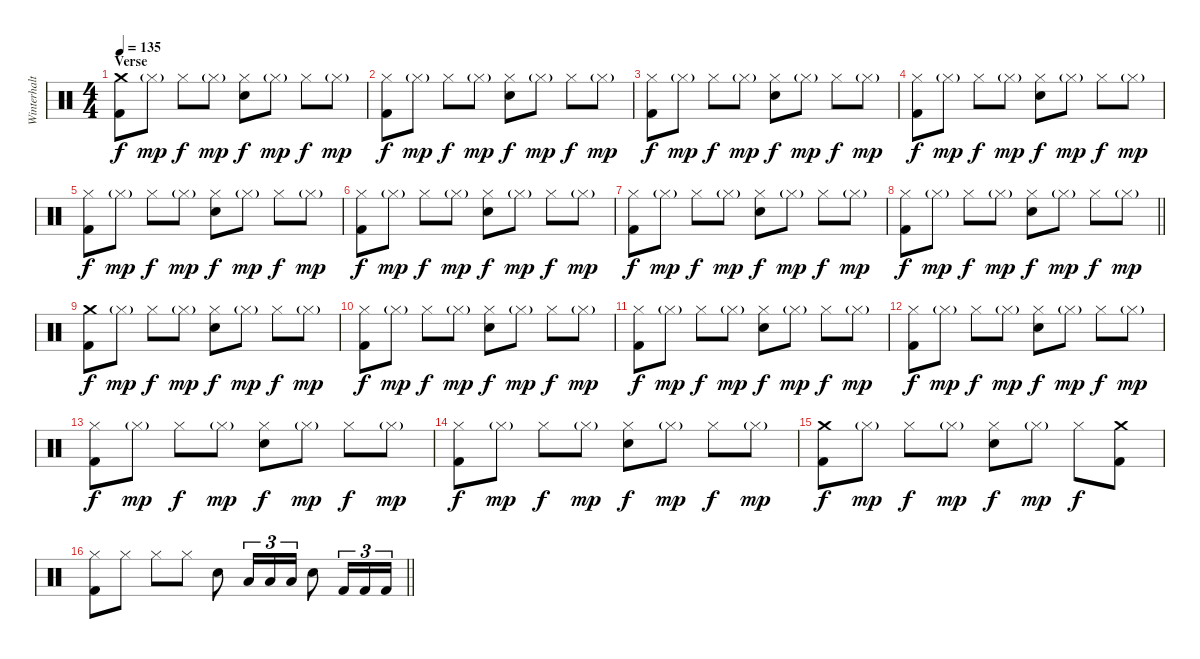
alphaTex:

\track ("Winterhalter" "Winterhalt") {instrument percussion}
\staff {score}
\articulation defaults
\ts (4 4)
\section ("" "Verse")
\tempo 135
\clef neutral
\ks c
("Crash medium (hit)" "Kick (hit) 2").8{dy f} "Hi-Hat (closed)"{g}.8{dy mp} "Hi-Hat (closed)".8{dy f} "Hi-Hat (closed)"{g}.8{dy mp} ("Hi-Hat (closed)" "Snare (hit) 2").8{dy f} "Hi-Hat (closed)"{g}.8{dy mp} "Hi-Hat (closed)".8{dy f} "Hi-Hat (closed)"{g}.8{dy mp} |
("Hi-Hat (closed)" "Kick (hit) 2").8{dy f} "Hi-Hat (closed)"{g}.8{dy mp} "Hi-Hat (closed)".8{dy f} "Hi-Hat (closed)"{g}.8{dy mp} ("Hi-Hat (closed)" "Snare (hit) 2").8{dy f} "Hi-Hat (closed)"{g}.8{dy mp} "Hi-Hat (closed)".8{dy f} "Hi-Hat (closed)"{g}.8{dy mp} |
("Hi-Hat (closed)" "Kick (hit) 2").8{dy f} "Hi-Hat (closed)"{g}.8{dy mp} "Hi-Hat (closed)".8{dy f} "Hi-Hat (closed)"{g}.8{dy mp} ("Hi-Hat (closed)" "Snare (hit) 2").8{dy f} "Hi-Hat (closed)"{g}.8{dy mp} "Hi-Hat (closed)".8{dy f} "Hi-Hat (closed)"{g}.8{dy mp} |
("Hi-Hat (closed)" "Kick (hit) 2").8{dy f} "Hi-Hat (closed)"{g}.8{dy mp} "Hi-Hat (closed)".8{dy f} "Hi-Hat (closed)"{g}.8{dy mp} ("Hi-Hat (closed)" "Snare (hit) 2").8{dy f} "Hi-Hat (closed)"{g}.8{dy mp} "Hi-Hat (closed)".8{dy f} "Hi-Hat (closed)"{g}.8{dy mp} |
("Hi-Hat (closed)" "Kick (hit) 2").8{dy f} "Hi-Hat (closed)"{g}.8{dy mp} "Hi-Hat (closed)".8{dy f} "Hi-Hat (closed)"{g}.8{dy mp} ("Hi-Hat (closed)" "Snare (hit) 2").8{dy f} "Hi-Hat (closed)"{g}.8{dy mp} "Hi-Hat (closed)".8{dy f} "Hi-Hat (closed)"{g}.8{dy mp} |
("Hi-Hat (closed)" "Kick (hit) 2").8{dy f} "Hi-Hat (closed)"{g}.8{dy mp} "Hi-Hat (closed)".8{dy f} "Hi-Hat (closed)"{g}.8{dy mp} ("Hi-Hat (closed)" "Snare (hit) 2").8{dy f} "Hi-Hat (closed)"{g}.8{dy mp} "Hi-Hat (closed)".8{dy f} "Hi-Hat (closed)"{g}.8{dy mp} |
("Hi-Hat (closed)" "Kick (hit) 2").8{dy f} "Hi-Hat (closed)"{g}.8{dy mp} "Hi-Hat (closed)".8{dy f} "Hi-Hat (closed)"{g}.8{dy mp} ("Hi-Hat (closed)" "Snare (hit) 2").8{dy f} "Hi-Hat (closed)"{g}.8{dy mp} "Hi-Hat (closed)".8{dy f} "Hi-Hat (closed)"{g}.8{dy mp} |
\barLineRight lightlight
("Hi-Hat (closed)" "Kick (hit) 2").8{dy f} "Hi-Hat (closed)"{g}.8{dy mp} "Hi-Hat (closed)".8{dy f} "Hi-Hat (closed)"{g}.8{dy mp} ("Hi-Hat (closed)" "Snare (hit) 2").8{dy f} "Hi-Hat (closed)"{g}.8{dy mp} "Hi-Hat (closed)".8{dy f} "Hi-Hat (closed)"{g}.8{dy mp} |
("Crash medium (hit)" "Kick (hit) 2").8{dy f} "Hi-Hat (closed)"{g}.8{dy mp} "Hi-Hat (closed)".8{dy f} "Hi-Hat (closed)"{g}.8{dy mp} ("Hi-Hat (closed)" "Snare (hit) 2").8{dy f} "Hi-Hat (closed)"{g}.8{dy mp} "Hi-Hat (closed)".8{dy f} "Hi-Hat (closed)"{g}.8{dy mp} |
("Hi-Hat (closed)" "Kick (hit) 2").8{dy f} "Hi-Hat (closed)"{g}.8{dy mp} "Hi-Hat (closed)".8{dy f} "Hi-Hat (closed)"{g}.8{dy mp} ("Hi-Hat (closed)" "Snare (hit) 2").8{dy f} "Hi-Hat (closed)"{g}.8{dy mp} "Hi-Hat (closed)".8{dy f} "Hi-Hat (closed)"{g}.8{dy mp} |
("Hi-Hat (closed)" "Kick (hit) 2").8{dy f} "Hi-Hat (closed)"{g}.8{dy mp} "Hi-Hat (closed)".8{dy f} "Hi-Hat (closed)"{g}.8{dy mp} ("Hi-Hat (closed)" "Snare (hit) 2").8{dy f} "Hi-Hat (closed)"{g}.8{dy mp} "Hi-Hat (closed)".8{dy f} "Hi-Hat (closed)"{g}.8{dy mp} |
("Hi-Hat (closed)" "Kick (hit) 2").8{dy f} "Hi-Hat (closed)"{g}.8{dy mp} "Hi-Hat (closed)".8{dy f} "Hi-Hat (closed)"{g}.8{dy mp} ("Hi-Hat (closed)" "Snare (hit) 2").8{dy f} "Hi-Hat (closed)"{g}.8{dy mp} "Hi-Hat (closed)".8{dy f} "Hi-Hat (closed)"{g}.8{dy mp} |
("Hi-Hat (closed)" "Kick (hit) 2").8{dy f} "Hi-Hat (closed)"{g}.8{dy mp} "Hi-Hat (closed)".8{dy f} "Hi-Hat (closed)"{g}.8{dy mp} ("Hi-Hat (closed)" "Snare (hit) 2").8{dy f} "Hi-Hat (closed)"{g}.8{dy mp} "Hi-Hat (closed)".8{dy f} "Hi-Hat (closed)"{g}.8{dy mp} |
("Hi-Hat (closed)" "Kick (hit) 2").8{dy f} "Hi-Hat (closed)"{g}.8{dy mp} "Hi-Hat (closed)".8{dy f} "Hi-Hat (closed)"{g}.8{dy mp} ("Hi-Hat (closed)" "Snare (hit) 2").8{dy f} "Hi-Hat (closed)"{g}.8{dy mp} "Hi-Hat (closed)".8{dy f} "Hi-Hat (closed)"{g}.8{dy mp} |
("Crash medium (hit)" "Kick (hit) 2").8{dy f} "Hi-Hat (closed)"{g}.8{dy mp} "Hi-Hat (closed)".8{dy f} "Hi-Hat (closed)"{g}.8{dy mp} ("Hi-Hat (closed)" "Snare (hit) 2").8{dy f} "Hi-Hat (closed)"{g}.8{dy mp} "Hi-Hat (closed)".8{dy f} ("Crash medium (hit)" "Kick (hit) 2").8 |
\barLineRight lightlight
("Hi-Hat (closed)" "Kick (hit) 2").8 "Hi-Hat (closed)".8 "Hi-Hat (closed)".8 "Hi-Hat (closed)".8 "Snare (hit) 2".8 "Low Floor Tom (hit)".16{tu (3 2)} "Low Floor Tom (hit)".16{tu (3 2)} "Low Floor Tom (hit)".16{tu (3 2)} "Snare (hit) 2".8 "Kick (hit) 2".16{tu (3 2)} "Kick (hit) 2".16{tu (3 2)} "Kick (hit) 2".16{tu (3 2)}
